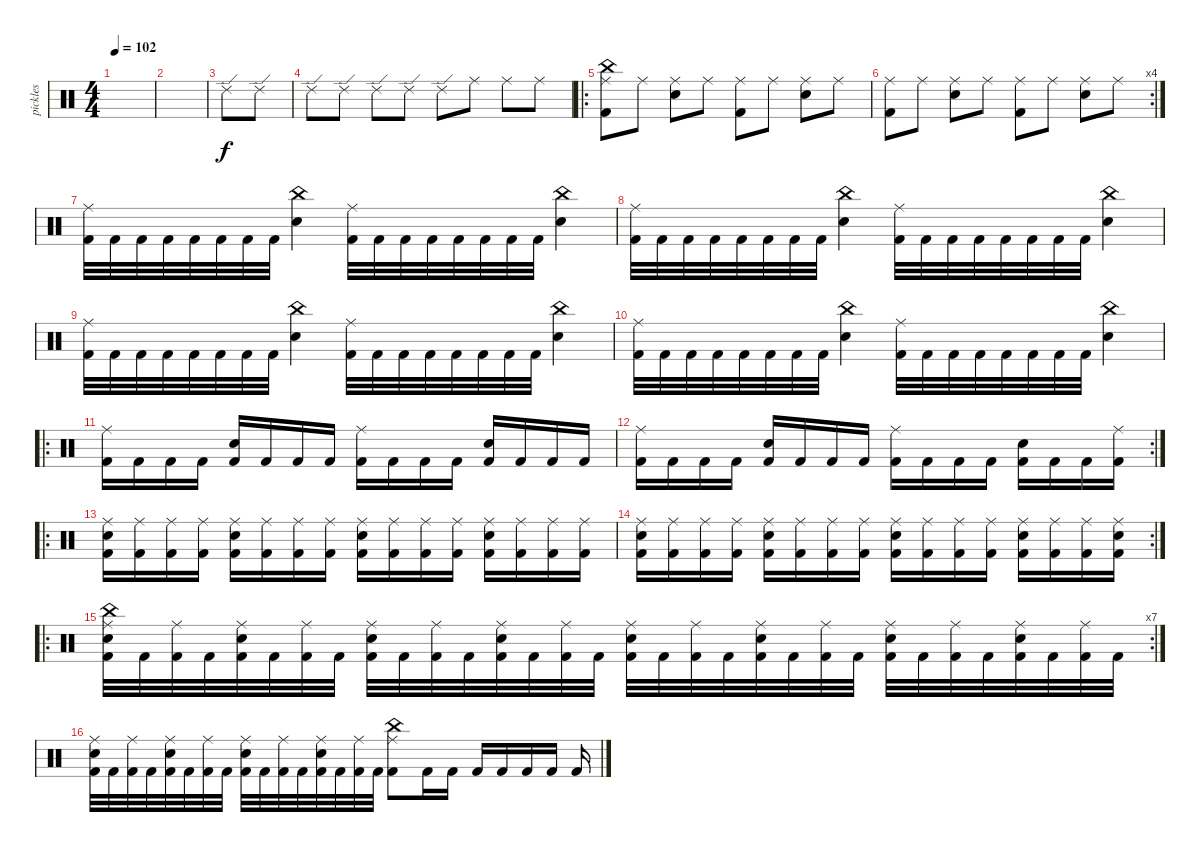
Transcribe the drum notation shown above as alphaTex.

\track ("pickles" "pickles") {instrument percussion}
\staff {score}
\articulation defaults
\ts (4 4)
\tempo 102
\clef neutral
\ks c
|
|
"Ride (edge) 2".8 "Ride (edge) 2".8 |
"Ride (edge) 2".8 "Ride (edge) 2".8 "Ride (edge) 2".8 "Ride (edge) 2".8 "Ride (edge) 2".8 "Ride (middle)".8 "Ride (middle)".8 "Ride (middle)".8 |
\ro
("Kick (hit) 2" "China (hit)" "Ride (middle)").8 "Ride (middle)".8 ("Electric Snare (hit)" "Ride (middle)").8 "Ride (middle)".8 ("Kick (hit) 2" "Ride (middle)").8 "Ride (middle)".8 ("Electric Snare (hit)" "Ride (middle)").8 "Ride (middle)".8 |
\rc 4
("Kick (hit) 2" "Ride (middle)").8 "Ride (middle)".8 ("Electric Snare (hit)" "Ride (middle)").8 "Ride (middle)".8 ("Kick (hit) 2" "Ride (middle)").8 "Ride (middle)".8 ("Electric Snare (hit)" "Ride (middle)").8 "Ride (middle)".8 |
("Kick (hit) 2" "Ride (middle)").32 "Kick (hit) 2".32 "Kick (hit) 2".32 "Kick (hit) 2".32 "Kick (hit) 2".32 "Kick (hit) 2".32 "Kick (hit) 2".32 "Kick (hit) 2".32 ("Electric Snare (hit)" "China (hit)").4 ("Kick (hit) 2" "Ride (middle)").32 "Kick (hit) 2".32 "Kick (hit) 2".32 "Kick (hit) 2".32 "Kick (hit) 2".32 "Kick (hit) 2".32 "Kick (hit) 2".32 "Kick (hit) 2".32 ("Electric Snare (hit)" "China (hit)").4 |
("Kick (hit) 2" "Ride (middle)").32 "Kick (hit) 2".32 "Kick (hit) 2".32 "Kick (hit) 2".32 "Kick (hit) 2".32 "Kick (hit) 2".32 "Kick (hit) 2".32 "Kick (hit) 2".32 ("Electric Snare (hit)" "China (hit)").4 ("Kick (hit) 2" "Ride (middle)").32 "Kick (hit) 2".32 "Kick (hit) 2".32 "Kick (hit) 2".32 "Kick (hit) 2".32 "Kick (hit) 2".32 "Kick (hit) 2".32 "Kick (hit) 2".32 ("Electric Snare (hit)" "China (hit)").4 |
("Kick (hit) 2" "Ride (middle)").32 "Kick (hit) 2".32 "Kick (hit) 2".32 "Kick (hit) 2".32 "Kick (hit) 2".32 "Kick (hit) 2".32 "Kick (hit) 2".32 "Kick (hit) 2".32 ("Electric Snare (hit)" "China (hit)").4 ("Kick (hit) 2" "Ride (middle)").32 "Kick (hit) 2".32 "Kick (hit) 2".32 "Kick (hit) 2".32 "Kick (hit) 2".32 "Kick (hit) 2".32 "Kick (hit) 2".32 "Kick (hit) 2".32 ("Electric Snare (hit)" "China (hit)").4 |
("Kick (hit) 2" "Ride (middle)").32 "Kick (hit) 2".32 "Kick (hit) 2".32 "Kick (hit) 2".32 "Kick (hit) 2".32 "Kick (hit) 2".32 "Kick (hit) 2".32 "Kick (hit) 2".32 ("Electric Snare (hit)" "China (hit)").4 ("Kick (hit) 2" "Ride (middle)").32 "Kick (hit) 2".32 "Kick (hit) 2".32 "Kick (hit) 2".32 "Kick (hit) 2".32 "Kick (hit) 2".32 "Kick (hit) 2".32 "Kick (hit) 2".32 ("Electric Snare (hit)" "China (hit)").4 |
\ro
("Kick (hit) 2" "Ride (middle)").16 "Kick (hit) 2".16 "Kick (hit) 2".16 "Kick (hit) 2".16 ("Kick (hit) 2" "Electric Snare (hit)").16 "Kick (hit) 2".16 "Kick (hit) 2".16 "Kick (hit) 2".16 ("Kick (hit) 2" "Ride (middle)").16 "Kick (hit) 2".16 "Kick (hit) 2".16 "Kick (hit) 2".16 ("Kick (hit) 2" "Electric Snare (hit)").16 "Kick (hit) 2".16 "Kick (hit) 2".16 "Kick (hit) 2".16 |
\rc 2
("Kick (hit) 2" "Ride (middle)").16 "Kick (hit) 2".16 "Kick (hit) 2".16 "Kick (hit) 2".16 ("Kick (hit) 2" "Electric Snare (hit)").16 "Kick (hit) 2".16 "Kick (hit) 2".16 "Kick (hit) 2".16 ("Kick (hit) 2" "Ride (middle)").16 "Kick (hit) 2".16 "Kick (hit) 2".16 "Kick (hit) 2".16 ("Kick (hit) 2" "Electric Snare (hit)").16 "Kick (hit) 2".16 "Kick (hit) 2".16 ("Kick (hit) 2" "Ride (middle)").16 |
\ro
("Kick (hit) 2" "Electric Snare (hit)" "Ride (middle)").16 ("Kick (hit) 2" "Ride (middle)").16 ("Kick (hit) 2" "Ride (middle)").16 ("Kick (hit) 2" "Ride (middle)").16 ("Kick (hit) 2" "Electric Snare (hit)" "Ride (middle)").16 ("Kick (hit) 2" "Ride (middle)").16 ("Kick (hit) 2" "Ride (middle)").16 ("Kick (hit) 2" "Ride (middle)").16 ("Kick (hit) 2" "Electric Snare (hit)" "Ride (middle)").16 ("Kick (hit) 2" "Ride (middle)").16 ("Kick (hit) 2" "Ride (middle)").16 ("Kick (hit) 2" "Ride (middle)").16 ("Kick (hit) 2" "Electric Snare (hit)" "Ride (middle)").16 ("Kick (hit) 2" "Ride (middle)").16 ("Kick (hit) 2" "Ride (middle)").16 ("Kick (hit) 2" "Ride (middle)").16 |
\rc 2
("Kick (hit) 2" "Electric Snare (hit)" "Ride (middle)").16 ("Kick (hit) 2" "Ride (middle)").16 ("Kick (hit) 2" "Ride (middle)").16 ("Kick (hit) 2" "Ride (middle)").16 ("Kick (hit) 2" "Electric Snare (hit)" "Ride (middle)").16 ("Kick (hit) 2" "Ride (middle)").16 ("Kick (hit) 2" "Ride (middle)").16 ("Kick (hit) 2" "Ride (middle)").16 ("Kick (hit) 2" "Electric Snare (hit)" "Ride (middle)").16 ("Kick (hit) 2" "Ride (middle)").16 ("Kick (hit) 2" "Ride (middle)").16 ("Kick (hit) 2" "Ride (middle)").16 ("Kick (hit) 2" "Electric Snare (hit)" "Ride (middle)").16 ("Kick (hit) 2" "Ride (middle)").16 ("Kick (hit) 2" "Ride (middle)").16 ("Kick (hit) 2" "Electric Snare (hit)" "Ride (middle)").16 |
\ro
\rc 7
("Kick (hit) 2" "China (hit)" "Electric Snare (hit)" "Ride (middle)").32 "Kick (hit) 2".32 ("Kick (hit) 2" "Ride (middle)").32 "Kick (hit) 2".32 ("Kick (hit) 2" "Electric Snare (hit)" "Ride (middle)").32 "Kick (hit) 2".32 ("Kick (hit) 2" "Ride (middle)").32 "Kick (hit) 2".32 ("Kick (hit) 2" "Electric Snare (hit)" "Ride (middle)").32 "Kick (hit) 2".32 ("Kick (hit) 2" "Ride (middle)").32 "Kick (hit) 2".32 ("Kick (hit) 2" "Electric Snare (hit)" "Ride (middle)").32 "Kick (hit) 2".32 ("Kick (hit) 2" "Ride (middle)").32 "Kick (hit) 2".32 ("Kick (hit) 2" "Electric Snare (hit)" "Ride (middle)").32 "Kick (hit) 2".32 ("Kick (hit) 2" "Ride (middle)").32 "Kick (hit) 2".32 ("Kick (hit) 2" "Electric Snare (hit)" "Ride (middle)").32 "Kick (hit) 2".32 ("Kick (hit) 2" "Ride (middle)").32 "Kick (hit) 2".32 ("Kick (hit) 2" "Electric Snare (hit)" "Ride (middle)").32 "Kick (hit) 2".32 ("Kick (hit) 2" "Ride (middle)").32 "Kick (hit) 2".32 ("Kick (hit) 2" "Electric Snare (hit)" "Ride (middle)").32 "Kick (hit) 2".32 ("Kick (hit) 2" "Ride (middle)").32 "Kick (hit) 2".32 |
("Kick (hit) 2" "Electric Snare (hit)" "Ride (middle)").32 "Kick (hit) 2".32 ("Kick (hit) 2" "Ride (middle)").32 "Kick (hit) 2".32 ("Kick (hit) 2" "Electric Snare (hit)" "Ride (middle)").32 "Kick (hit) 2".32 ("Kick (hit) 2" "Ride (middle)").32 "Kick (hit) 2".32 ("Kick (hit) 2" "Electric Snare (hit)" "Ride (middle)").32 "Kick (hit) 2".32 ("Kick (hit) 2" "Ride (middle)").32 "Kick (hit) 2".32 ("Kick (hit) 2" "Electric Snare (hit)" "Ride (middle)").32 "Kick (hit) 2".32 ("Kick (hit) 2" "Ride (middle)").32 "Kick (hit) 2".32 ("Kick (hit) 2" "China (hit)" "Ride (middle)").8 "Kick (hit) 2".16 "Kick (hit) 2".16 "Kick (hit) 2".16 "Kick (hit) 2".16 "Kick (hit) 2".16 "Kick (hit) 2".16 "Kick (hit) 2".16
